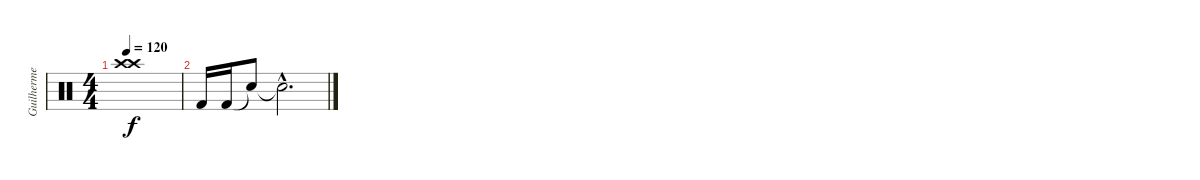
\track ("Guilherme" "Guilherme") {instrument percussion}
\staff {score}
\articulation defaults
\ts (4 4)
\tempo 120
\clef neutral
\ks c
("Crash high (hit)" "Crash high (hit)").1{dy f} |
"Kick (hit) 2".16 "Kick (hit) 2".16 "Snare (hit)"{t}.8 "Snare (hit)"{hac t}.2{d}
